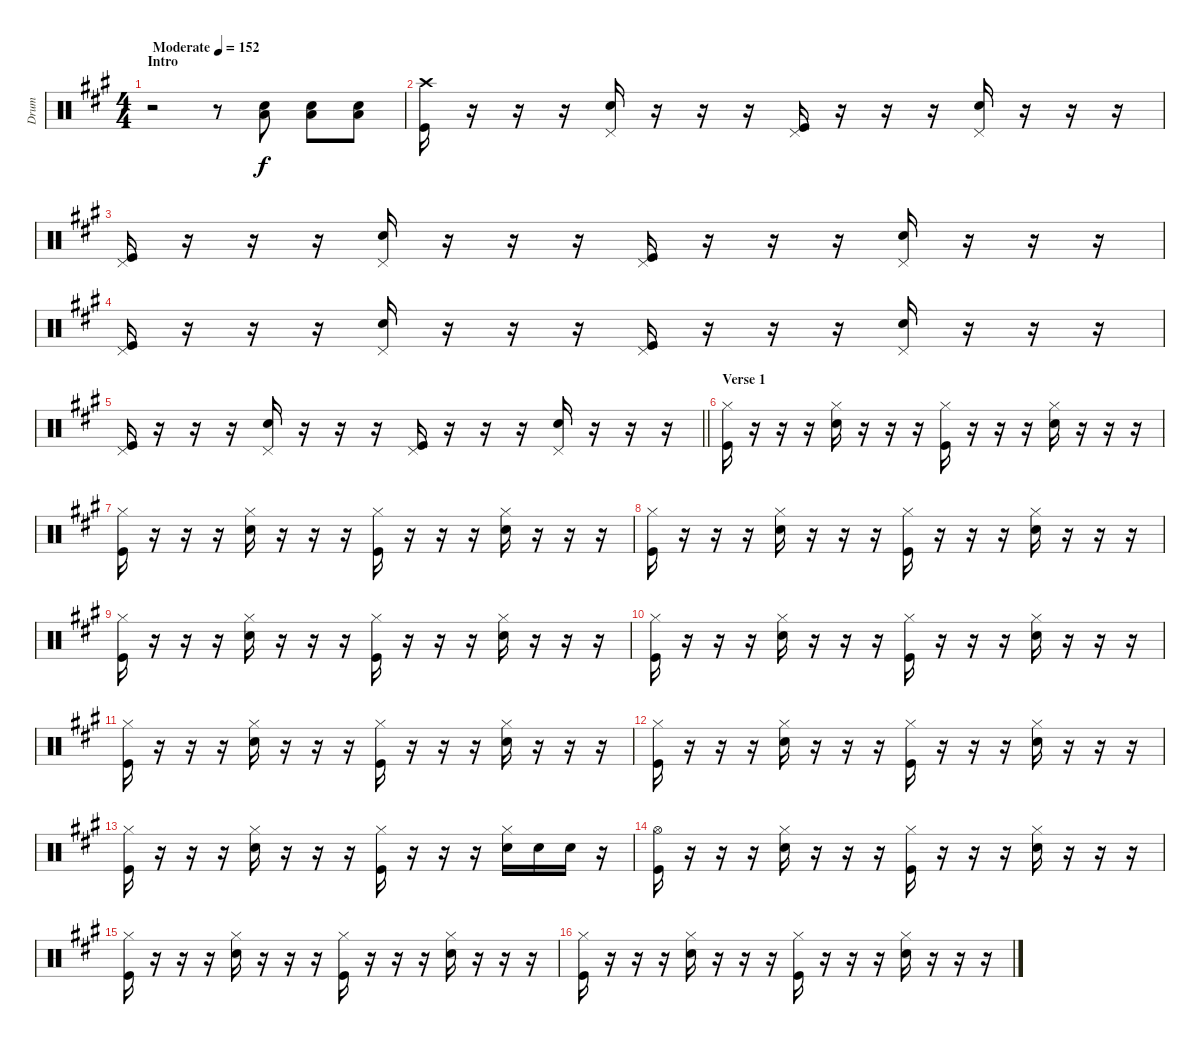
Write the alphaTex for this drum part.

\track ("Drum" "Drum") {instrument percussion}
\staff {score}
\articulation defaults
\ts (4 4)
\section ("" "Intro")
\tempo (152 "Moderate")
\clef neutral
\ks a
r.2{dy f} r.8 ("Snare (hit) 2" "Low Floor Tom (hit)").8 ("Snare (hit) 2" "Low Floor Tom (hit)").8 ("Snare (hit) 2" "Low Floor Tom (hit)").8 |
("Kick (hit)" "Crash high (hit)").16 r.16 r.16 r.16 ("Snare (hit) 2" "Pedal Hi-Hat (hit)").16 r.16 r.16 r.16 ("Kick (hit)" "Pedal Hi-Hat (hit)").16 r.16 r.16 r.16 ("Snare (hit) 2" "Pedal Hi-Hat (hit)").16 r.16 r.16 r.16 |
("Kick (hit)" "Pedal Hi-Hat (hit)").16 r.16 r.16 r.16 ("Snare (hit) 2" "Pedal Hi-Hat (hit)").16 r.16 r.16 r.16 ("Kick (hit)" "Pedal Hi-Hat (hit)").16 r.16 r.16 r.16 ("Snare (hit) 2" "Pedal Hi-Hat (hit)").16 r.16 r.16 r.16 |
("Kick (hit)" "Pedal Hi-Hat (hit)").16 r.16 r.16 r.16 ("Snare (hit) 2" "Pedal Hi-Hat (hit)").16 r.16 r.16 r.16 ("Kick (hit)" "Pedal Hi-Hat (hit)").16 r.16 r.16 r.16 ("Snare (hit) 2" "Pedal Hi-Hat (hit)").16 r.16 r.16 r.16 |
\barLineRight lightlight
("Kick (hit)" "Pedal Hi-Hat (hit)").16 r.16 r.16 r.16 ("Snare (hit) 2" "Pedal Hi-Hat (hit)").16 r.16 r.16 r.16 ("Kick (hit)" "Pedal Hi-Hat (hit)").16 r.16 r.16 r.16 ("Snare (hit) 2" "Pedal Hi-Hat (hit)").16 r.16 r.16 r.16 |
\section ("" "Verse 1")
("Kick (hit)" "Hi-Hat (closed)").16 r.16 r.16 r.16 ("Snare (hit) 2" "Hi-Hat (closed)").16 r.16 r.16 r.16 ("Kick (hit)" "Hi-Hat (closed)").16 r.16 r.16 r.16 ("Snare (hit) 2" "Hi-Hat (closed)").16 r.16 r.16 r.16 |
("Kick (hit)" "Hi-Hat (closed)").16 r.16 r.16 r.16 ("Snare (hit) 2" "Hi-Hat (closed)").16 r.16 r.16 r.16 ("Kick (hit)" "Hi-Hat (closed)").16 r.16 r.16 r.16 ("Snare (hit) 2" "Hi-Hat (closed)").16 r.16 r.16 r.16 |
("Kick (hit)" "Hi-Hat (closed)").16 r.16 r.16 r.16 ("Snare (hit) 2" "Hi-Hat (closed)").16 r.16 r.16 r.16 ("Kick (hit)" "Hi-Hat (closed)").16 r.16 r.16 r.16 ("Snare (hit) 2" "Hi-Hat (closed)").16 r.16 r.16 r.16 |
("Kick (hit)" "Hi-Hat (closed)").16 r.16 r.16 r.16 ("Snare (hit) 2" "Hi-Hat (closed)").16 r.16 r.16 r.16 ("Kick (hit)" "Hi-Hat (closed)").16 r.16 r.16 r.16 ("Snare (hit) 2" "Hi-Hat (closed)").16 r.16 r.16 r.16 |
("Kick (hit)" "Hi-Hat (closed)").16 r.16 r.16 r.16 ("Snare (hit) 2" "Hi-Hat (closed)").16 r.16 r.16 r.16 ("Kick (hit)" "Hi-Hat (closed)").16 r.16 r.16 r.16 ("Snare (hit) 2" "Hi-Hat (closed)").16 r.16 r.16 r.16 |
("Kick (hit)" "Hi-Hat (closed)").16 r.16 r.16 r.16 ("Snare (hit) 2" "Hi-Hat (closed)").16 r.16 r.16 r.16 ("Kick (hit)" "Hi-Hat (closed)").16 r.16 r.16 r.16 ("Snare (hit) 2" "Hi-Hat (closed)").16 r.16 r.16 r.16 |
("Kick (hit)" "Hi-Hat (closed)").16 r.16 r.16 r.16 ("Snare (hit) 2" "Hi-Hat (closed)").16 r.16 r.16 r.16 ("Kick (hit)" "Hi-Hat (closed)").16 r.16 r.16 r.16 ("Snare (hit) 2" "Hi-Hat (closed)").16 r.16 r.16 r.16 |
("Kick (hit)" "Hi-Hat (closed)").16 r.16 r.16 r.16 ("Snare (hit) 2" "Hi-Hat (closed)").16 r.16 r.16 r.16 ("Kick (hit)" "Hi-Hat (closed)").16 r.16 r.16 r.16 ("Snare (hit) 2" "Hi-Hat (closed)").16 "Snare (hit) 2".16 "Snare (hit) 2".16 r.16 |
("Kick (hit)" "Hi-Hat (open)").16 r.16 r.16 r.16 ("Snare (hit) 2" "Hi-Hat (closed)").16 r.16 r.16 r.16 ("Kick (hit)" "Hi-Hat (closed)").16 r.16 r.16 r.16 ("Snare (hit) 2" "Hi-Hat (closed)").16 r.16 r.16 r.16 |
("Kick (hit)" "Hi-Hat (closed)").16 r.16 r.16 r.16 ("Snare (hit) 2" "Hi-Hat (closed)").16 r.16 r.16 r.16 ("Kick (hit)" "Hi-Hat (closed)").16 r.16 r.16 r.16 ("Snare (hit) 2" "Hi-Hat (closed)").16 r.16 r.16 r.16 |
("Kick (hit)" "Hi-Hat (closed)").16 r.16 r.16 r.16 ("Snare (hit) 2" "Hi-Hat (closed)").16 r.16 r.16 r.16 ("Kick (hit)" "Hi-Hat (closed)").16 r.16 r.16 r.16 ("Snare (hit) 2" "Hi-Hat (closed)").16 r.16 r.16 r.16
